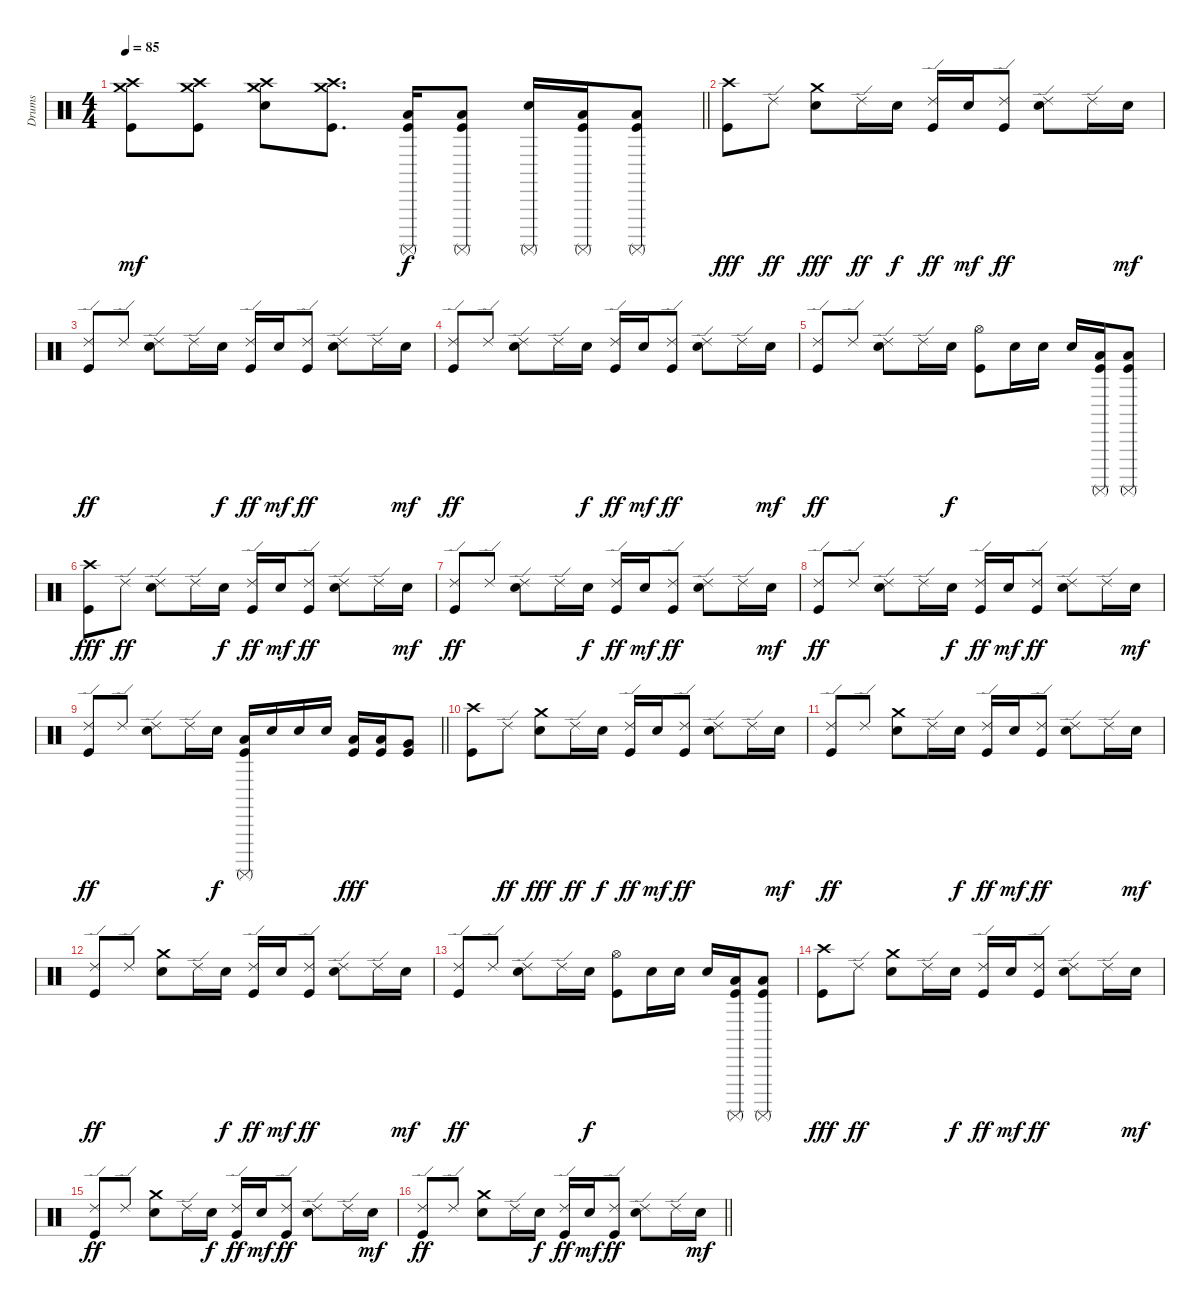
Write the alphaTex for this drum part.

\track ("Drums" "Drums") {instrument percussion}
\staff {score}
\articulation defaults
\ts (4 4)
\tempo 85
\clef neutral
\barLineRight lightlight
\ks c
("Crash high (hit)" "Crash medium (hit)" "Kick (hit)").8{dy mf} ("Crash high (hit)" "Crash medium (hit)" "Kick (hit)").8 ("Crash high (hit)" "Crash medium (hit)" "Snare (hit) 2").8 ("Crash high (hit)" "Crash medium (hit)" "Kick (hit)").8{d} ("Surdo (mute)" "Low Floor Tom (hit)" "Kick (hit)").16{dy f} ("Surdo (mute)" "Low Floor Tom (hit)" "Kick (hit)").8 ("Surdo (mute)" "Snare (hit) 2").16 ("Surdo (mute)" "Low Floor Tom (hit)" "Kick (hit)").16 ("Surdo (mute)" "Low Floor Tom (hit)" "Kick (hit)").8 |
("Crash high (hit)" "Kick (hit)").8{dy fff} "Ride (edge) 2".8{dy ff} ("Crash medium (hit)" "Snare (hit) 2").8{dy fff} "Ride (edge) 2".16{dy ff} "Snare (hit) 2".16{dy f} ("Ride (edge) 2" "Kick (hit)").16{dy ff} "Snare (hit) 2".16{dy mf} ("Ride (edge) 2" "Kick (hit)").8{dy ff} ("Ride (edge) 2" "Snare (hit) 2").8 "Ride (edge) 2".16 "Snare (hit) 2".16{dy mf} |
("Ride (edge) 2" "Kick (hit)").8{dy ff} "Ride (edge) 2".8 ("Ride (edge) 2" "Snare (hit) 2").8 "Ride (edge) 2".16 "Snare (hit) 2".16{dy f} ("Ride (edge) 2" "Kick (hit)").16{dy ff} "Snare (hit) 2".16{dy mf} ("Ride (edge) 2" "Kick (hit)").8{dy ff} ("Ride (edge) 2" "Snare (hit) 2").8 "Ride (edge) 2".16 "Snare (hit) 2".16{dy mf} |
("Ride (edge) 2" "Kick (hit)").8{dy ff} "Ride (edge) 2".8 ("Ride (edge) 2" "Snare (hit) 2").8 "Ride (edge) 2".16 "Snare (hit) 2".16{dy f} ("Ride (edge) 2" "Kick (hit)").16{dy ff} "Snare (hit) 2".16{dy mf} ("Ride (edge) 2" "Kick (hit)").8{dy ff} ("Ride (edge) 2" "Snare (hit) 2").8 "Ride (edge) 2".16 "Snare (hit) 2".16{dy mf} |
("Ride (edge) 2" "Kick (hit)").8{dy ff} "Ride (edge) 2".8 ("Ride (edge) 2" "Snare (hit) 2").8 "Ride (edge) 2".16 "Snare (hit) 2".16{dy f} ("Hi-Hat (open)" "Kick (hit)").8 "Snare (hit) 2".16 "Snare (hit) 2".16 "Snare (hit) 2".16 ("Surdo (mute)" "Low Floor Tom (hit)" "Kick (hit)").16 ("Surdo (mute)" "Low Floor Tom (hit)" "Kick (hit)").8 |
("Crash high (hit)" "Kick (hit)").8{dy fff} "Ride (edge) 2".8{dy ff} ("Ride (edge) 2" "Snare (hit) 2").8 "Ride (edge) 2".16 "Snare (hit) 2".16{dy f} ("Ride (edge) 2" "Kick (hit)").16{dy ff} "Snare (hit) 2".16{dy mf} ("Ride (edge) 2" "Kick (hit)").8{dy ff} ("Ride (edge) 2" "Snare (hit) 2").8 "Ride (edge) 2".16 "Snare (hit) 2".16{dy mf} |
("Ride (edge) 2" "Kick (hit)").8{dy ff} "Ride (edge) 2".8 ("Ride (edge) 2" "Snare (hit) 2").8 "Ride (edge) 2".16 "Snare (hit) 2".16{dy f} ("Ride (edge) 2" "Kick (hit)").16{dy ff} "Snare (hit) 2".16{dy mf} ("Ride (edge) 2" "Kick (hit)").8{dy ff} ("Ride (edge) 2" "Snare (hit) 2").8 "Ride (edge) 2".16 "Snare (hit) 2".16{dy mf} |
("Ride (edge) 2" "Kick (hit)").8{dy ff} "Ride (edge) 2".8 ("Ride (edge) 2" "Snare (hit) 2").8 "Ride (edge) 2".16 "Snare (hit) 2".16{dy f} ("Ride (edge) 2" "Kick (hit)").16{dy ff} "Snare (hit) 2".16{dy mf} ("Ride (edge) 2" "Kick (hit)").8{dy ff} ("Ride (edge) 2" "Snare (hit) 2").8 "Ride (edge) 2".16 "Snare (hit) 2".16{dy mf} |
\barLineRight lightlight
("Ride (edge) 2" "Kick (hit)").8{dy ff} "Ride (edge) 2".8 ("Ride (edge) 2" "Snare (hit) 2").8 "Ride (edge) 2".16 "Snare (hit) 2".16{dy f} ("Surdo (mute)" "Low Floor Tom (hit)" "Kick (hit)").16 "Snare (hit) 2".16 "Snare (hit) 2".16 "Snare (hit) 2".16 ("Low Tom (hit)" "Kick (hit)").16{dy fff} ("Low Tom (hit)" "Kick (hit)").16 ("Very Low Tom (hit)" "Kick (hit)").8 |
("Crash high (hit)" "Kick (hit)").8 "Ride (edge) 2".8{dy ff} ("Crash medium (hit)" "Snare (hit) 2").8{dy fff} "Ride (edge) 2".16{dy ff} "Snare (hit) 2".16{dy f} ("Ride (edge) 2" "Kick (hit)").16{dy ff} "Snare (hit) 2".16{dy mf} ("Ride (edge) 2" "Kick (hit)").8{dy ff} ("Ride (edge) 2" "Snare (hit) 2").8 "Ride (edge) 2".16 "Snare (hit) 2".16{dy mf} |
("Ride (edge) 2" "Kick (hit)").8{dy ff} "Ride (edge) 2".8 ("Crash medium (hit)" "Snare (hit) 2").8 "Ride (edge) 2".16 "Snare (hit) 2".16{dy f} ("Ride (edge) 2" "Kick (hit)").16{dy ff} "Snare (hit) 2".16{dy mf} ("Ride (edge) 2" "Kick (hit)").8{dy ff} ("Ride (edge) 2" "Snare (hit) 2").8 "Ride (edge) 2".16 "Snare (hit) 2".16{dy mf} |
("Ride (edge) 2" "Kick (hit)").8{dy ff} "Ride (edge) 2".8 ("Crash medium (hit)" "Snare (hit) 2").8 "Ride (edge) 2".16 "Snare (hit) 2".16{dy f} ("Ride (edge) 2" "Kick (hit)").16{dy ff} "Snare (hit) 2".16{dy mf} ("Ride (edge) 2" "Kick (hit)").8{dy ff} ("Ride (edge) 2" "Snare (hit) 2").8 "Ride (edge) 2".16 "Snare (hit) 2".16{dy mf} |
("Ride (edge) 2" "Kick (hit)").8{dy ff} "Ride (edge) 2".8 ("Ride (edge) 2" "Snare (hit) 2").8 "Ride (edge) 2".16 "Snare (hit) 2".16{dy f} ("Hi-Hat (open)" "Kick (hit)").8 "Snare (hit) 2".16 "Snare (hit) 2".16 "Snare (hit) 2".16 ("Surdo (mute)" "Low Floor Tom (hit)" "Kick (hit)").16 ("Surdo (mute)" "Low Floor Tom (hit)" "Kick (hit)").8 |
("Crash high (hit)" "Kick (hit)").8{dy fff} "Ride (edge) 2".8{dy ff} ("Crash medium (hit)" "Snare (hit) 2").8 "Ride (edge) 2".16 "Snare (hit) 2".16{dy f} ("Ride (edge) 2" "Kick (hit)").16{dy ff} "Snare (hit) 2".16{dy mf} ("Ride (edge) 2" "Kick (hit)").8{dy ff} ("Ride (edge) 2" "Snare (hit) 2").8 "Ride (edge) 2".16 "Snare (hit) 2".16{dy mf} |
("Ride (edge) 2" "Kick (hit)").8{dy ff} "Ride (edge) 2".8 ("Crash medium (hit)" "Snare (hit) 2").8 "Ride (edge) 2".16 "Snare (hit) 2".16{dy f} ("Ride (edge) 2" "Kick (hit)").16{dy ff} "Snare (hit) 2".16{dy mf} ("Ride (edge) 2" "Kick (hit)").8{dy ff} ("Ride (edge) 2" "Snare (hit) 2").8 "Ride (edge) 2".16 "Snare (hit) 2".16{dy mf} |
\barLineRight lightlight
("Ride (edge) 2" "Kick (hit)").8{dy ff} "Ride (edge) 2".8 ("Crash medium (hit)" "Snare (hit) 2").8 "Ride (edge) 2".16 "Snare (hit) 2".16{dy f} ("Ride (edge) 2" "Kick (hit)").16{dy ff} "Snare (hit) 2".16{dy mf} ("Ride (edge) 2" "Kick (hit)").8{dy ff} ("Ride (edge) 2" "Snare (hit) 2").8 "Ride (edge) 2".16 "Snare (hit) 2".16{dy mf}
